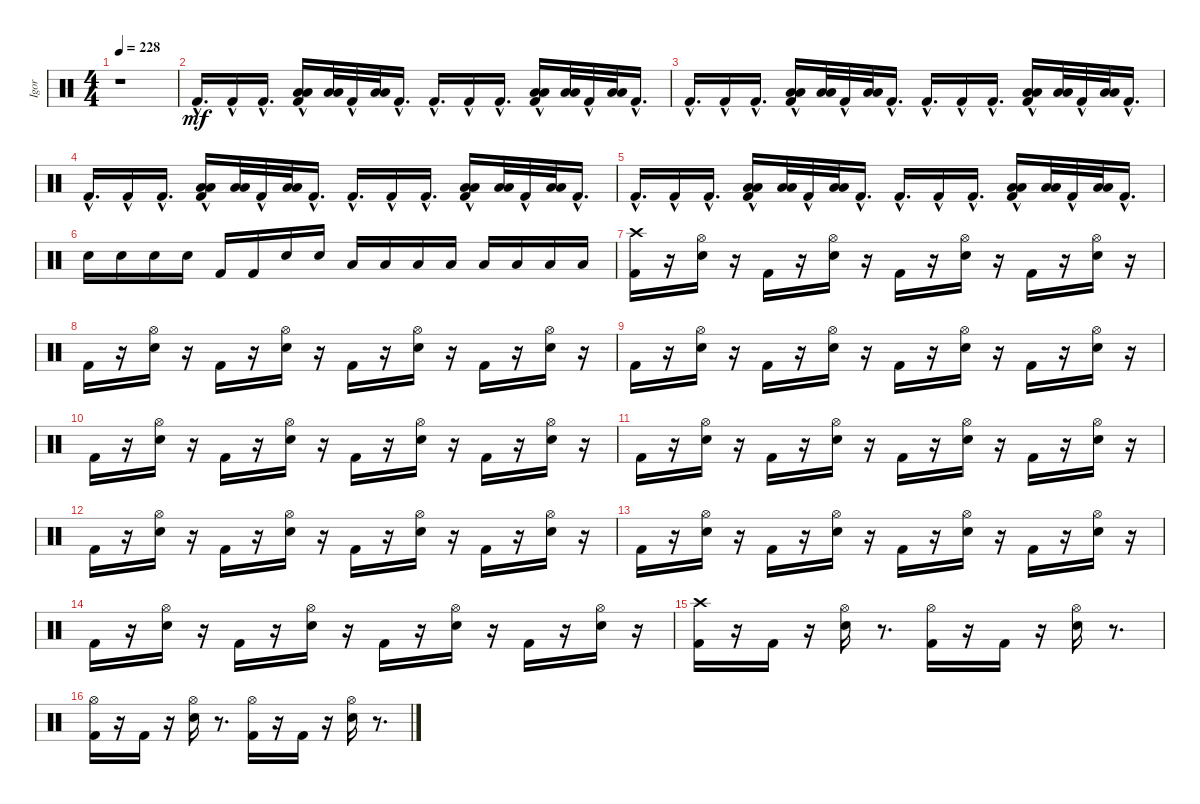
\track ("Igor" "Igor") {instrument percussion}
\staff {score}
\articulation defaults
\ts (4 4)
\tempo 228
\clef neutral
\ks c
r.1{dy mf} |
"Kick (hit) 2"{hac}.16{d} "Kick (hit) 2"{hac}.16 "Kick (hit) 2"{hac}.16{d} ("Low Tom (hit)" "Low Floor Tom (hit)" "Kick (hit) 2"{hac}).16 ("Low Tom (hit)" "Low Floor Tom (hit)").32 "Kick (hit) 2"{hac}.32 ("Low Floor Tom (hit)" "Low Tom (hit)").32 "Kick (hit) 2"{hac}.16{d} "Kick (hit) 2"{hac}.16{d} "Kick (hit) 2"{hac}.16 "Kick (hit) 2"{hac}.16{d} ("Low Floor Tom (hit)" "Low Tom (hit)" "Kick (hit) 2"{hac}).16 ("Low Floor Tom (hit)" "Low Tom (hit)").32 "Kick (hit) 2"{hac}.32 ("Low Tom (hit)" "Low Floor Tom (hit)").32 "Kick (hit) 2"{hac}.16{d} |
"Kick (hit) 2"{hac}.16{d} "Kick (hit) 2"{hac}.16 "Kick (hit) 2"{hac}.16{d} ("Low Tom (hit)" "Low Floor Tom (hit)" "Kick (hit) 2"{hac}).16 ("Low Tom (hit)" "Low Floor Tom (hit)").32 "Kick (hit) 2"{hac}.32 ("Low Floor Tom (hit)" "Low Tom (hit)").32 "Kick (hit) 2"{hac}.16{d} "Kick (hit) 2"{hac}.16{d} "Kick (hit) 2"{hac}.16 "Kick (hit) 2"{hac}.16{d} ("Low Floor Tom (hit)" "Low Tom (hit)" "Kick (hit) 2"{hac}).16 ("Low Floor Tom (hit)" "Low Tom (hit)").32 "Kick (hit) 2"{hac}.32 ("Low Tom (hit)" "Low Floor Tom (hit)").32 "Kick (hit) 2"{hac}.16{d} |
"Kick (hit) 2"{hac}.16{d} "Kick (hit) 2"{hac}.16 "Kick (hit) 2"{hac}.16{d} ("Low Tom (hit)" "Low Floor Tom (hit)" "Kick (hit) 2"{hac}).16 ("Low Tom (hit)" "Low Floor Tom (hit)").32 "Kick (hit) 2"{hac}.32 ("Low Floor Tom (hit)" "Low Tom (hit)").32 "Kick (hit) 2"{hac}.16{d} "Kick (hit) 2"{hac}.16{d} "Kick (hit) 2"{hac}.16 "Kick (hit) 2"{hac}.16{d} ("Low Floor Tom (hit)" "Low Tom (hit)" "Kick (hit) 2"{hac}).16 ("Low Floor Tom (hit)" "Low Tom (hit)").32 "Kick (hit) 2"{hac}.32 ("Low Tom (hit)" "Low Floor Tom (hit)").32 "Kick (hit) 2"{hac}.16{d} |
"Kick (hit) 2"{hac}.16{d} "Kick (hit) 2"{hac}.16 "Kick (hit) 2"{hac}.16{d} ("Low Tom (hit)" "Low Floor Tom (hit)" "Kick (hit) 2"{hac}).16 ("Low Tom (hit)" "Low Floor Tom (hit)").32 "Kick (hit) 2"{hac}.32 ("Low Floor Tom (hit)" "Low Tom (hit)").32 "Kick (hit) 2"{hac}.16{d} "Kick (hit) 2"{hac}.16{d} "Kick (hit) 2"{hac}.16 "Kick (hit) 2"{hac}.16{d} ("Low Floor Tom (hit)" "Low Tom (hit)" "Kick (hit) 2"{hac}).16 ("Low Floor Tom (hit)" "Low Tom (hit)").32 "Kick (hit) 2"{hac}.32 ("Low Tom (hit)" "Low Floor Tom (hit)").32 "Kick (hit) 2"{hac}.16{d} |
"Snare (hit) 2".16 "Snare (hit) 2".16 "Snare (hit) 2".16 "Snare (hit) 2".16 "Kick (hit) 2".16 "Kick (hit) 2".16 "Snare (hit) 2".16 "Snare (hit) 2".16 "Low Tom (hit)".16 "Low Tom (hit)".16 "Low Tom (hit)".16 "Low Tom (hit)".16 "Low Floor Tom (hit)".16 "Low Floor Tom (hit)".16 "Low Floor Tom (hit)".16 "Low Floor Tom (hit)".16 |
("Kick (hit) 2" "Crash high (hit)").16 r.16 ("Snare (hit) 2" "Hi-Hat (open)").16 r.16 "Kick (hit) 2".16 r.16 ("Snare (hit) 2" "Hi-Hat (open)").16 r.16 "Kick (hit) 2".16 r.16 ("Snare (hit) 2" "Hi-Hat (open)").16 r.16 "Kick (hit) 2".16 r.16 ("Snare (hit) 2" "Hi-Hat (open)").16 r.16 |
"Kick (hit) 2".16 r.16 ("Snare (hit) 2" "Hi-Hat (open)").16 r.16 "Kick (hit) 2".16 r.16 ("Snare (hit) 2" "Hi-Hat (open)").16 r.16 "Kick (hit) 2".16 r.16 ("Snare (hit) 2" "Hi-Hat (open)").16 r.16 "Kick (hit) 2".16 r.16 ("Snare (hit) 2" "Hi-Hat (open)").16 r.16 |
"Kick (hit) 2".16 r.16 ("Snare (hit) 2" "Hi-Hat (open)").16 r.16 "Kick (hit) 2".16 r.16 ("Snare (hit) 2" "Hi-Hat (open)").16 r.16 "Kick (hit) 2".16 r.16 ("Snare (hit) 2" "Hi-Hat (open)").16 r.16 "Kick (hit) 2".16 r.16 ("Snare (hit) 2" "Hi-Hat (open)").16 r.16 |
"Kick (hit) 2".16 r.16 ("Snare (hit) 2" "Hi-Hat (open)").16 r.16 "Kick (hit) 2".16 r.16 ("Snare (hit) 2" "Hi-Hat (open)").16 r.16 "Kick (hit) 2".16 r.16 ("Snare (hit) 2" "Hi-Hat (open)").16 r.16 "Kick (hit) 2".16 r.16 ("Snare (hit) 2" "Hi-Hat (open)").16 r.16 |
"Kick (hit) 2".16 r.16 ("Snare (hit) 2" "Hi-Hat (open)").16 r.16 "Kick (hit) 2".16 r.16 ("Snare (hit) 2" "Hi-Hat (open)").16 r.16 "Kick (hit) 2".16 r.16 ("Snare (hit) 2" "Hi-Hat (open)").16 r.16 "Kick (hit) 2".16 r.16 ("Snare (hit) 2" "Hi-Hat (open)").16 r.16 |
"Kick (hit) 2".16 r.16 ("Snare (hit) 2" "Hi-Hat (open)").16 r.16 "Kick (hit) 2".16 r.16 ("Snare (hit) 2" "Hi-Hat (open)").16 r.16 "Kick (hit) 2".16 r.16 ("Snare (hit) 2" "Hi-Hat (open)").16 r.16 "Kick (hit) 2".16 r.16 ("Snare (hit) 2" "Hi-Hat (open)").16 r.16 |
"Kick (hit) 2".16 r.16 ("Snare (hit) 2" "Hi-Hat (open)").16 r.16 "Kick (hit) 2".16 r.16 ("Snare (hit) 2" "Hi-Hat (open)").16 r.16 "Kick (hit) 2".16 r.16 ("Snare (hit) 2" "Hi-Hat (open)").16 r.16 "Kick (hit) 2".16 r.16 ("Snare (hit) 2" "Hi-Hat (open)").16 r.16 |
"Kick (hit) 2".16 r.16 ("Snare (hit) 2" "Hi-Hat (open)").16 r.16 "Kick (hit) 2".16 r.16 ("Snare (hit) 2" "Hi-Hat (open)").16 r.16 "Kick (hit) 2".16 r.16 ("Snare (hit) 2" "Hi-Hat (open)").16 r.16 "Kick (hit) 2".16 r.16 ("Snare (hit) 2" "Hi-Hat (open)").16 r.16 |
("Crash high (hit)" "Kick (hit) 2").16 r.16 "Kick (hit) 2".16 r.16 ("Snare (hit) 2" "Hi-Hat (open)").16 r.8{d} ("Kick (hit) 2" "Hi-Hat (open)").16 r.16 "Kick (hit) 2".16 r.16 ("Snare (hit) 2" "Hi-Hat (open)").16 r.8{d} |
("Kick (hit) 2" "Hi-Hat (open)").16 r.16 "Kick (hit) 2".16 r.16 ("Snare (hit) 2" "Hi-Hat (open)").16 r.8{d} ("Kick (hit) 2" "Hi-Hat (open)").16 r.16 "Kick (hit) 2".16 r.16 ("Snare (hit) 2" "Hi-Hat (open)").16 r.8{d}
